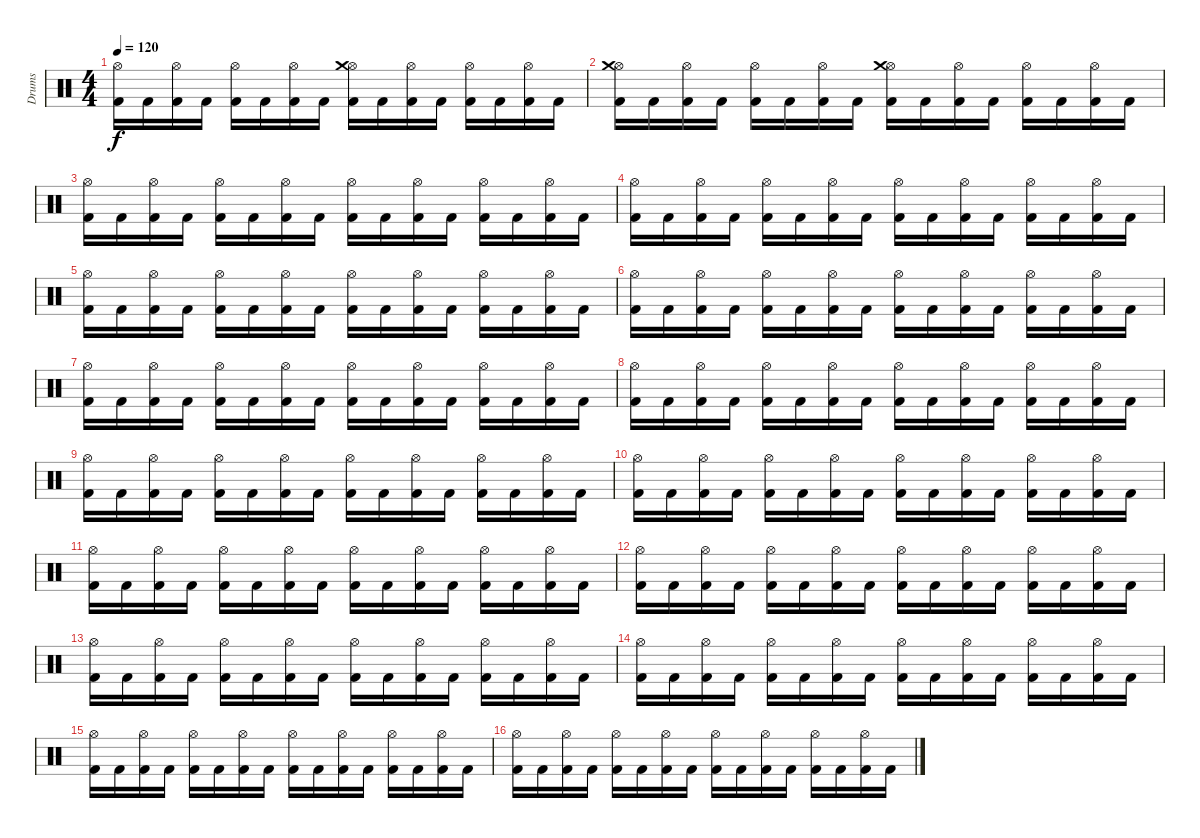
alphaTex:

\track ("Drums" "Drums") {instrument percussion}
\staff {score}
\articulation defaults
\ts (4 4)
\tempo 120
\clef neutral
\ks c
("Kick (hit) 2" "Hi-Hat (open)").16{dy f} "Kick (hit) 2".16 ("Kick (hit) 2" "Hi-Hat (open)").16 "Kick (hit) 2".16 ("Kick (hit) 2" "Hi-Hat (open)").16 "Kick (hit) 2".16 ("Kick (hit) 2" "Hi-Hat (open)").16 "Kick (hit) 2".16 ("Kick (hit) 2" "Hi-Hat (open)" "Crash medium (hit)").16 "Kick (hit) 2".16 ("Kick (hit) 2" "Hi-Hat (open)").16 "Kick (hit) 2".16 ("Kick (hit) 2" "Hi-Hat (open)").16 "Kick (hit) 2".16 ("Kick (hit) 2" "Hi-Hat (open)").16 "Kick (hit) 2".16 |
("Kick (hit) 2" "Hi-Hat (open)" "Crash medium (hit)").16 "Kick (hit) 2".16 ("Kick (hit) 2" "Hi-Hat (open)").16 "Kick (hit) 2".16 ("Kick (hit) 2" "Hi-Hat (open)").16 "Kick (hit) 2".16 ("Kick (hit) 2" "Hi-Hat (open)").16 "Kick (hit) 2".16 ("Kick (hit) 2" "Hi-Hat (open)" "Crash medium (hit)").16 "Kick (hit) 2".16 ("Kick (hit) 2" "Hi-Hat (open)").16 "Kick (hit) 2".16 ("Kick (hit) 2" "Hi-Hat (open)").16 "Kick (hit) 2".16 ("Kick (hit) 2" "Hi-Hat (open)").16 "Kick (hit) 2".16 |
("Kick (hit) 2" "Hi-Hat (open)").16 "Kick (hit) 2".16 ("Kick (hit) 2" "Hi-Hat (open)").16 "Kick (hit) 2".16 ("Kick (hit) 2" "Hi-Hat (open)").16 "Kick (hit) 2".16 ("Kick (hit) 2" "Hi-Hat (open)").16 "Kick (hit) 2".16 ("Kick (hit) 2" "Hi-Hat (open)").16 "Kick (hit) 2".16 ("Kick (hit) 2" "Hi-Hat (open)").16 "Kick (hit) 2".16 ("Kick (hit) 2" "Hi-Hat (open)").16 "Kick (hit) 2".16 ("Kick (hit) 2" "Hi-Hat (open)").16 "Kick (hit) 2".16 |
("Kick (hit) 2" "Hi-Hat (open)").16 "Kick (hit) 2".16 ("Kick (hit) 2" "Hi-Hat (open)").16 "Kick (hit) 2".16 ("Kick (hit) 2" "Hi-Hat (open)").16 "Kick (hit) 2".16 ("Kick (hit) 2" "Hi-Hat (open)").16 "Kick (hit) 2".16 ("Kick (hit) 2" "Hi-Hat (open)").16 "Kick (hit) 2".16 ("Kick (hit) 2" "Hi-Hat (open)").16 "Kick (hit) 2".16 ("Kick (hit) 2" "Hi-Hat (open)").16 "Kick (hit) 2".16 ("Kick (hit) 2" "Hi-Hat (open)").16 "Kick (hit) 2".16 |
("Kick (hit) 2" "Hi-Hat (open)").16 "Kick (hit) 2".16 ("Kick (hit) 2" "Hi-Hat (open)").16 "Kick (hit) 2".16 ("Kick (hit) 2" "Hi-Hat (open)").16 "Kick (hit) 2".16 ("Kick (hit) 2" "Hi-Hat (open)").16 "Kick (hit) 2".16 ("Kick (hit) 2" "Hi-Hat (open)").16 "Kick (hit) 2".16 ("Kick (hit) 2" "Hi-Hat (open)").16 "Kick (hit) 2".16 ("Kick (hit) 2" "Hi-Hat (open)").16 "Kick (hit) 2".16 ("Kick (hit) 2" "Hi-Hat (open)").16 "Kick (hit) 2".16 |
("Kick (hit) 2" "Hi-Hat (open)").16 "Kick (hit) 2".16 ("Kick (hit) 2" "Hi-Hat (open)").16 "Kick (hit) 2".16 ("Kick (hit) 2" "Hi-Hat (open)").16 "Kick (hit) 2".16 ("Kick (hit) 2" "Hi-Hat (open)").16 "Kick (hit) 2".16 ("Kick (hit) 2" "Hi-Hat (open)").16 "Kick (hit) 2".16 ("Kick (hit) 2" "Hi-Hat (open)").16 "Kick (hit) 2".16 ("Kick (hit) 2" "Hi-Hat (open)").16 "Kick (hit) 2".16 ("Kick (hit) 2" "Hi-Hat (open)").16 "Kick (hit) 2".16 |
("Kick (hit) 2" "Hi-Hat (open)").16 "Kick (hit) 2".16 ("Kick (hit) 2" "Hi-Hat (open)").16 "Kick (hit) 2".16 ("Kick (hit) 2" "Hi-Hat (open)").16 "Kick (hit) 2".16 ("Kick (hit) 2" "Hi-Hat (open)").16 "Kick (hit) 2".16 ("Kick (hit) 2" "Hi-Hat (open)").16 "Kick (hit) 2".16 ("Kick (hit) 2" "Hi-Hat (open)").16 "Kick (hit) 2".16 ("Kick (hit) 2" "Hi-Hat (open)").16 "Kick (hit) 2".16 ("Kick (hit) 2" "Hi-Hat (open)").16 "Kick (hit) 2".16 |
("Kick (hit) 2" "Hi-Hat (open)").16 "Kick (hit) 2".16 ("Kick (hit) 2" "Hi-Hat (open)").16 "Kick (hit) 2".16 ("Kick (hit) 2" "Hi-Hat (open)").16 "Kick (hit) 2".16 ("Kick (hit) 2" "Hi-Hat (open)").16 "Kick (hit) 2".16 ("Kick (hit) 2" "Hi-Hat (open)").16 "Kick (hit) 2".16 ("Kick (hit) 2" "Hi-Hat (open)").16 "Kick (hit) 2".16 ("Kick (hit) 2" "Hi-Hat (open)").16 "Kick (hit) 2".16 ("Kick (hit) 2" "Hi-Hat (open)").16 "Kick (hit) 2".16 |
("Kick (hit) 2" "Hi-Hat (open)").16 "Kick (hit) 2".16 ("Kick (hit) 2" "Hi-Hat (open)").16 "Kick (hit) 2".16 ("Kick (hit) 2" "Hi-Hat (open)").16 "Kick (hit) 2".16 ("Kick (hit) 2" "Hi-Hat (open)").16 "Kick (hit) 2".16 ("Kick (hit) 2" "Hi-Hat (open)").16 "Kick (hit) 2".16 ("Kick (hit) 2" "Hi-Hat (open)").16 "Kick (hit) 2".16 ("Kick (hit) 2" "Hi-Hat (open)").16 "Kick (hit) 2".16 ("Kick (hit) 2" "Hi-Hat (open)").16 "Kick (hit) 2".16 |
("Kick (hit) 2" "Hi-Hat (open)").16 "Kick (hit) 2".16 ("Kick (hit) 2" "Hi-Hat (open)").16 "Kick (hit) 2".16 ("Kick (hit) 2" "Hi-Hat (open)").16 "Kick (hit) 2".16 ("Kick (hit) 2" "Hi-Hat (open)").16 "Kick (hit) 2".16 ("Kick (hit) 2" "Hi-Hat (open)").16 "Kick (hit) 2".16 ("Kick (hit) 2" "Hi-Hat (open)").16 "Kick (hit) 2".16 ("Kick (hit) 2" "Hi-Hat (open)").16 "Kick (hit) 2".16 ("Kick (hit) 2" "Hi-Hat (open)").16 "Kick (hit) 2".16 |
("Kick (hit) 2" "Hi-Hat (open)").16 "Kick (hit) 2".16 ("Kick (hit) 2" "Hi-Hat (open)").16 "Kick (hit) 2".16 ("Kick (hit) 2" "Hi-Hat (open)").16 "Kick (hit) 2".16 ("Kick (hit) 2" "Hi-Hat (open)").16 "Kick (hit) 2".16 ("Kick (hit) 2" "Hi-Hat (open)").16 "Kick (hit) 2".16 ("Kick (hit) 2" "Hi-Hat (open)").16 "Kick (hit) 2".16 ("Kick (hit) 2" "Hi-Hat (open)").16 "Kick (hit) 2".16 ("Kick (hit) 2" "Hi-Hat (open)").16 "Kick (hit) 2".16 |
("Kick (hit) 2" "Hi-Hat (open)").16 "Kick (hit) 2".16 ("Kick (hit) 2" "Hi-Hat (open)").16 "Kick (hit) 2".16 ("Kick (hit) 2" "Hi-Hat (open)").16 "Kick (hit) 2".16 ("Kick (hit) 2" "Hi-Hat (open)").16 "Kick (hit) 2".16 ("Kick (hit) 2" "Hi-Hat (open)").16 "Kick (hit) 2".16 ("Kick (hit) 2" "Hi-Hat (open)").16 "Kick (hit) 2".16 ("Kick (hit) 2" "Hi-Hat (open)").16 "Kick (hit) 2".16 ("Kick (hit) 2" "Hi-Hat (open)").16 "Kick (hit) 2".16 |
("Kick (hit) 2" "Hi-Hat (open)").16 "Kick (hit) 2".16 ("Kick (hit) 2" "Hi-Hat (open)").16 "Kick (hit) 2".16 ("Kick (hit) 2" "Hi-Hat (open)").16 "Kick (hit) 2".16 ("Kick (hit) 2" "Hi-Hat (open)").16 "Kick (hit) 2".16 ("Kick (hit) 2" "Hi-Hat (open)").16 "Kick (hit) 2".16 ("Kick (hit) 2" "Hi-Hat (open)").16 "Kick (hit) 2".16 ("Kick (hit) 2" "Hi-Hat (open)").16 "Kick (hit) 2".16 ("Kick (hit) 2" "Hi-Hat (open)").16 "Kick (hit) 2".16 |
("Kick (hit) 2" "Hi-Hat (open)").16 "Kick (hit) 2".16 ("Kick (hit) 2" "Hi-Hat (open)").16 "Kick (hit) 2".16 ("Kick (hit) 2" "Hi-Hat (open)").16 "Kick (hit) 2".16 ("Kick (hit) 2" "Hi-Hat (open)").16 "Kick (hit) 2".16 ("Kick (hit) 2" "Hi-Hat (open)").16 "Kick (hit) 2".16 ("Kick (hit) 2" "Hi-Hat (open)").16 "Kick (hit) 2".16 ("Kick (hit) 2" "Hi-Hat (open)").16 "Kick (hit) 2".16 ("Kick (hit) 2" "Hi-Hat (open)").16 "Kick (hit) 2".16 |
("Kick (hit) 2" "Hi-Hat (open)").16 "Kick (hit) 2".16 ("Kick (hit) 2" "Hi-Hat (open)").16 "Kick (hit) 2".16 ("Kick (hit) 2" "Hi-Hat (open)").16 "Kick (hit) 2".16 ("Kick (hit) 2" "Hi-Hat (open)").16 "Kick (hit) 2".16 ("Kick (hit) 2" "Hi-Hat (open)").16 "Kick (hit) 2".16 ("Kick (hit) 2" "Hi-Hat (open)").16 "Kick (hit) 2".16 ("Kick (hit) 2" "Hi-Hat (open)").16 "Kick (hit) 2".16 ("Kick (hit) 2" "Hi-Hat (open)").16 "Kick (hit) 2".16 |
("Kick (hit) 2" "Hi-Hat (open)").16 "Kick (hit) 2".16 ("Kick (hit) 2" "Hi-Hat (open)").16 "Kick (hit) 2".16 ("Kick (hit) 2" "Hi-Hat (open)").16 "Kick (hit) 2".16 ("Kick (hit) 2" "Hi-Hat (open)").16 "Kick (hit) 2".16 ("Kick (hit) 2" "Hi-Hat (open)").16 "Kick (hit) 2".16 ("Kick (hit) 2" "Hi-Hat (open)").16 "Kick (hit) 2".16 ("Kick (hit) 2" "Hi-Hat (open)").16 "Kick (hit) 2".16 ("Kick (hit) 2" "Hi-Hat (open)").16 "Kick (hit) 2".16
